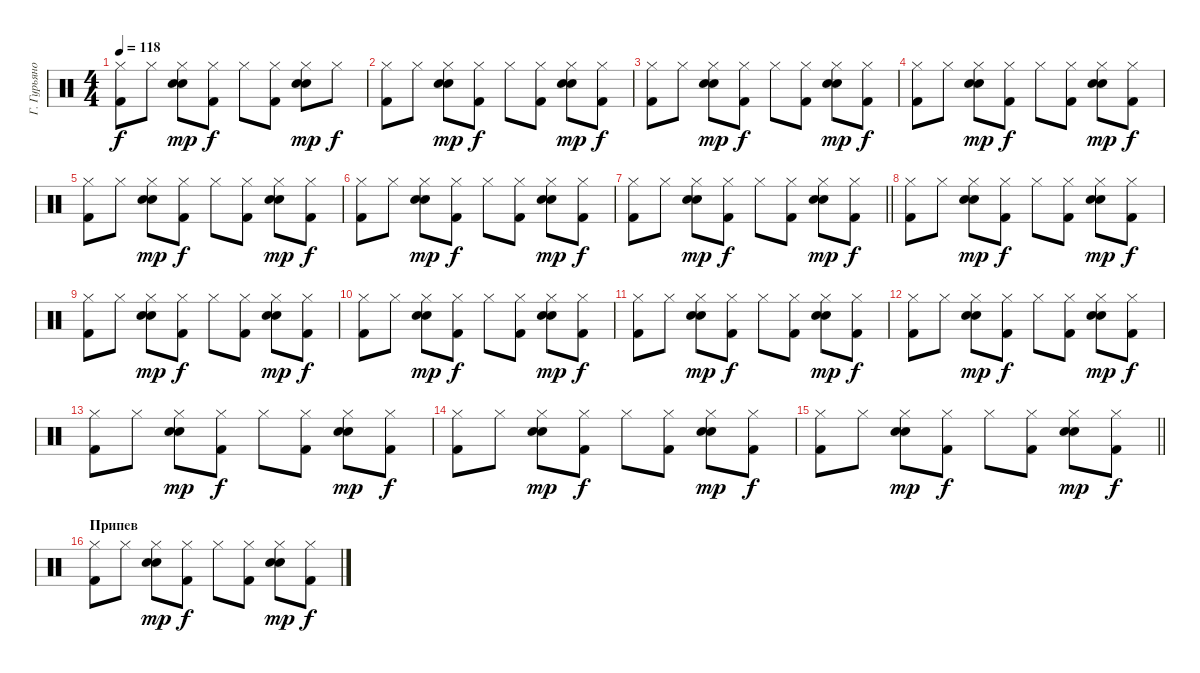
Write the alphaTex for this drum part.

\track ("Г. Гурьянов" "Г. Гурьяно") {instrument percussion}
\staff
\articulation defaults
\ts (4 4)
\tempo 118
\clef neutral
\ks c
("Hi-Hat (closed)" "Kick (hit) 2").8{dy f} "Hi-Hat (closed)".8 ("Hi-Hat (closed)" "Electric Snare (hit)" "Snare (hit) 2").8{dy mp} ("Hi-Hat (closed)" "Kick (hit) 2").8{dy f} "Hi-Hat (closed)".8 ("Hi-Hat (closed)" "Kick (hit) 2").8 ("Hi-Hat (closed)" "Electric Snare (hit)" "Snare (hit) 2").8{dy mp} "Hi-Hat (closed)".8{dy f} |
("Hi-Hat (closed)" "Kick (hit) 2").8 "Hi-Hat (closed)".8 ("Hi-Hat (closed)" "Electric Snare (hit)" "Snare (hit) 2").8{dy mp} ("Hi-Hat (closed)" "Kick (hit) 2").8{dy f} "Hi-Hat (closed)".8 ("Hi-Hat (closed)" "Kick (hit) 2").8 ("Hi-Hat (closed)" "Electric Snare (hit)" "Snare (hit) 2").8{dy mp} ("Hi-Hat (closed)" "Kick (hit) 2").8{dy f} |
("Hi-Hat (closed)" "Kick (hit) 2").8 "Hi-Hat (closed)".8 ("Hi-Hat (closed)" "Electric Snare (hit)" "Snare (hit) 2").8{dy mp} ("Hi-Hat (closed)" "Kick (hit) 2").8{dy f} "Hi-Hat (closed)".8 ("Hi-Hat (closed)" "Kick (hit) 2").8 ("Hi-Hat (closed)" "Electric Snare (hit)" "Snare (hit) 2").8{dy mp} ("Hi-Hat (closed)" "Kick (hit) 2").8{dy f} |
("Hi-Hat (closed)" "Kick (hit) 2").8 "Hi-Hat (closed)".8 ("Hi-Hat (closed)" "Electric Snare (hit)" "Snare (hit) 2").8{dy mp} ("Hi-Hat (closed)" "Kick (hit) 2").8{dy f} "Hi-Hat (closed)".8 ("Hi-Hat (closed)" "Kick (hit) 2").8 ("Hi-Hat (closed)" "Electric Snare (hit)" "Snare (hit) 2").8{dy mp} ("Hi-Hat (closed)" "Kick (hit) 2").8{dy f} |
("Hi-Hat (closed)" "Kick (hit) 2").8 "Hi-Hat (closed)".8 ("Hi-Hat (closed)" "Electric Snare (hit)" "Snare (hit) 2").8{dy mp} ("Hi-Hat (closed)" "Kick (hit) 2").8{dy f} "Hi-Hat (closed)".8 ("Hi-Hat (closed)" "Kick (hit) 2").8 ("Hi-Hat (closed)" "Electric Snare (hit)" "Snare (hit) 2").8{dy mp} ("Hi-Hat (closed)" "Kick (hit) 2").8{dy f} |
("Hi-Hat (closed)" "Kick (hit) 2").8 "Hi-Hat (closed)".8 ("Hi-Hat (closed)" "Electric Snare (hit)" "Snare (hit) 2").8{dy mp} ("Hi-Hat (closed)" "Kick (hit) 2").8{dy f} "Hi-Hat (closed)".8 ("Hi-Hat (closed)" "Kick (hit) 2").8 ("Hi-Hat (closed)" "Electric Snare (hit)" "Snare (hit) 2").8{dy mp} ("Hi-Hat (closed)" "Kick (hit) 2").8{dy f} |
\barLineRight lightlight
("Hi-Hat (closed)" "Kick (hit) 2").8 "Hi-Hat (closed)".8 ("Hi-Hat (closed)" "Electric Snare (hit)" "Snare (hit) 2").8{dy mp} ("Hi-Hat (closed)" "Kick (hit) 2").8{dy f} "Hi-Hat (closed)".8 ("Hi-Hat (closed)" "Kick (hit) 2").8 ("Hi-Hat (closed)" "Electric Snare (hit)" "Snare (hit) 2").8{dy mp} ("Hi-Hat (closed)" "Kick (hit) 2").8{dy f} |
("Hi-Hat (closed)" "Kick (hit) 2").8 "Hi-Hat (closed)".8 ("Hi-Hat (closed)" "Electric Snare (hit)" "Snare (hit) 2").8{dy mp} ("Hi-Hat (closed)" "Kick (hit) 2").8{dy f} "Hi-Hat (closed)".8 ("Hi-Hat (closed)" "Kick (hit) 2").8 ("Hi-Hat (closed)" "Electric Snare (hit)" "Snare (hit) 2").8{dy mp} ("Hi-Hat (closed)" "Kick (hit) 2").8{dy f} |
("Hi-Hat (closed)" "Kick (hit) 2").8 "Hi-Hat (closed)".8 ("Hi-Hat (closed)" "Electric Snare (hit)" "Snare (hit) 2").8{dy mp} ("Hi-Hat (closed)" "Kick (hit) 2").8{dy f} "Hi-Hat (closed)".8 ("Hi-Hat (closed)" "Kick (hit) 2").8 ("Hi-Hat (closed)" "Electric Snare (hit)" "Snare (hit) 2").8{dy mp} ("Hi-Hat (closed)" "Kick (hit) 2").8{dy f} |
("Hi-Hat (closed)" "Kick (hit) 2").8 "Hi-Hat (closed)".8 ("Hi-Hat (closed)" "Electric Snare (hit)" "Snare (hit) 2").8{dy mp} ("Hi-Hat (closed)" "Kick (hit) 2").8{dy f} "Hi-Hat (closed)".8 ("Hi-Hat (closed)" "Kick (hit) 2").8 ("Hi-Hat (closed)" "Electric Snare (hit)" "Snare (hit) 2").8{dy mp} ("Hi-Hat (closed)" "Kick (hit) 2").8{dy f} |
("Hi-Hat (closed)" "Kick (hit) 2").8 "Hi-Hat (closed)".8 ("Hi-Hat (closed)" "Electric Snare (hit)" "Snare (hit) 2").8{dy mp} ("Hi-Hat (closed)" "Kick (hit) 2").8{dy f} "Hi-Hat (closed)".8 ("Hi-Hat (closed)" "Kick (hit) 2").8 ("Hi-Hat (closed)" "Electric Snare (hit)" "Snare (hit) 2").8{dy mp} ("Hi-Hat (closed)" "Kick (hit) 2").8{dy f} |
("Hi-Hat (closed)" "Kick (hit) 2").8 "Hi-Hat (closed)".8 ("Hi-Hat (closed)" "Electric Snare (hit)" "Snare (hit) 2").8{dy mp} ("Hi-Hat (closed)" "Kick (hit) 2").8{dy f} "Hi-Hat (closed)".8 ("Hi-Hat (closed)" "Kick (hit) 2").8 ("Hi-Hat (closed)" "Electric Snare (hit)" "Snare (hit) 2").8{dy mp} ("Hi-Hat (closed)" "Kick (hit) 2").8{dy f} |
("Hi-Hat (closed)" "Kick (hit) 2").8 "Hi-Hat (closed)".8 ("Hi-Hat (closed)" "Electric Snare (hit)" "Snare (hit) 2").8{dy mp} ("Hi-Hat (closed)" "Kick (hit) 2").8{dy f} "Hi-Hat (closed)".8 ("Hi-Hat (closed)" "Kick (hit) 2").8 ("Hi-Hat (closed)" "Electric Snare (hit)" "Snare (hit) 2").8{dy mp} ("Hi-Hat (closed)" "Kick (hit) 2").8{dy f} |
("Hi-Hat (closed)" "Kick (hit) 2").8 "Hi-Hat (closed)".8 ("Hi-Hat (closed)" "Electric Snare (hit)" "Snare (hit) 2").8{dy mp} ("Hi-Hat (closed)" "Kick (hit) 2").8{dy f} "Hi-Hat (closed)".8 ("Hi-Hat (closed)" "Kick (hit) 2").8 ("Hi-Hat (closed)" "Electric Snare (hit)" "Snare (hit) 2").8{dy mp} ("Hi-Hat (closed)" "Kick (hit) 2").8{dy f} |
\barLineRight lightlight
("Hi-Hat (closed)" "Kick (hit) 2").8 "Hi-Hat (closed)".8 ("Hi-Hat (closed)" "Electric Snare (hit)" "Snare (hit) 2").8{dy mp} ("Hi-Hat (closed)" "Kick (hit) 2").8{dy f} "Hi-Hat (closed)".8 ("Hi-Hat (closed)" "Kick (hit) 2").8 ("Hi-Hat (closed)" "Electric Snare (hit)" "Snare (hit) 2").8{dy mp} ("Hi-Hat (closed)" "Kick (hit) 2").8{dy f} |
\section ("" "Припев")
("Hi-Hat (closed)" "Kick (hit) 2").8 "Hi-Hat (closed)".8 ("Hi-Hat (closed)" "Electric Snare (hit)" "Snare (hit) 2").8{dy mp} ("Hi-Hat (closed)" "Kick (hit) 2").8{dy f} "Hi-Hat (closed)".8 ("Hi-Hat (closed)" "Kick (hit) 2").8 ("Hi-Hat (closed)" "Electric Snare (hit)" "Snare (hit) 2").8{dy mp} ("Hi-Hat (closed)" "Kick (hit) 2").8{dy f}
